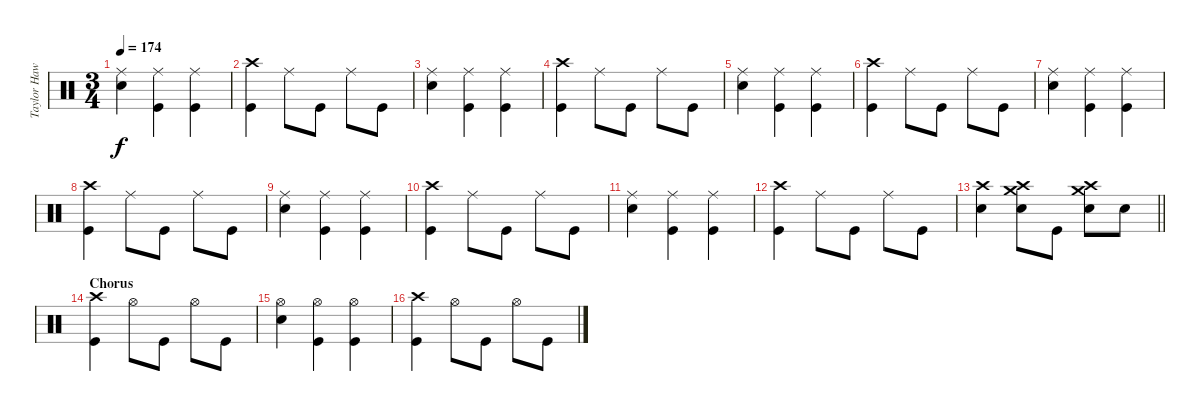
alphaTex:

\track ("Taylor Hawkins - Drums" "Taylor Haw") {instrument percussion}
\staff {score}
\articulation defaults
\ts (3 4)
\tempo 174
\clef neutral
\ks c
("Ride (middle)" "Snare (hit) 2").4{dy f} ("Ride (middle)" "Kick (hit)").4 ("Ride (middle)" "Kick (hit)").4 |
("Crash high (hit)" "Kick (hit)").4 "Ride (middle)".8 "Kick (hit)".8 "Ride (middle)".8 "Kick (hit)".8 |
("Ride (middle)" "Snare (hit) 2").4 ("Ride (middle)" "Kick (hit)").4 ("Ride (middle)" "Kick (hit)").4 |
("Crash high (hit)" "Kick (hit)").4 "Ride (middle)".8 "Kick (hit)".8 "Ride (middle)".8 "Kick (hit)".8 |
("Ride (middle)" "Snare (hit) 2").4 ("Ride (middle)" "Kick (hit)").4 ("Ride (middle)" "Kick (hit)").4 |
("Crash high (hit)" "Kick (hit)").4 "Ride (middle)".8 "Kick (hit)".8 "Ride (middle)".8 "Kick (hit)".8 |
("Ride (middle)" "Snare (hit) 2").4 ("Ride (middle)" "Kick (hit)").4 ("Ride (middle)" "Kick (hit)").4 |
("Crash high (hit)" "Kick (hit)").4 "Ride (middle)".8 "Kick (hit)".8 "Ride (middle)".8 "Kick (hit)".8 |
("Ride (middle)" "Snare (hit) 2").4 ("Ride (middle)" "Kick (hit)").4 ("Ride (middle)" "Kick (hit)").4 |
("Crash high (hit)" "Kick (hit)").4 "Ride (middle)".8 "Kick (hit)".8 "Ride (middle)".8 "Kick (hit)".8 |
("Ride (middle)" "Snare (hit) 2").4 ("Ride (middle)" "Kick (hit)").4 ("Ride (middle)" "Kick (hit)").4 |
("Crash high (hit)" "Kick (hit)").4 "Ride (middle)".8 "Kick (hit)".8 "Ride (middle)".8 "Kick (hit)".8 |
\barLineRight lightlight
("Crash high (hit)" "Snare (hit) 2").4 ("Crash high (hit)" "Crash medium (hit)" "Snare (hit) 2").8 "Kick (hit)".8 ("Crash high (hit)" "Crash medium (hit)" "Snare (hit) 2").8 "Snare (hit) 2".8 |
\section ("" "Chorus")
("Crash high (hit)" "Kick (hit)").4 "Hi-Hat (open)".8 "Kick (hit)".8 "Hi-Hat (open)".8 "Kick (hit)".8 |
("Hi-Hat (open)" "Snare (hit) 2").4 ("Hi-Hat (open)" "Kick (hit)").4 ("Hi-Hat (open)" "Kick (hit)").4 |
("Crash high (hit)" "Kick (hit)").4 "Hi-Hat (open)".8 "Kick (hit)".8 "Hi-Hat (open)".8 "Kick (hit)".8
